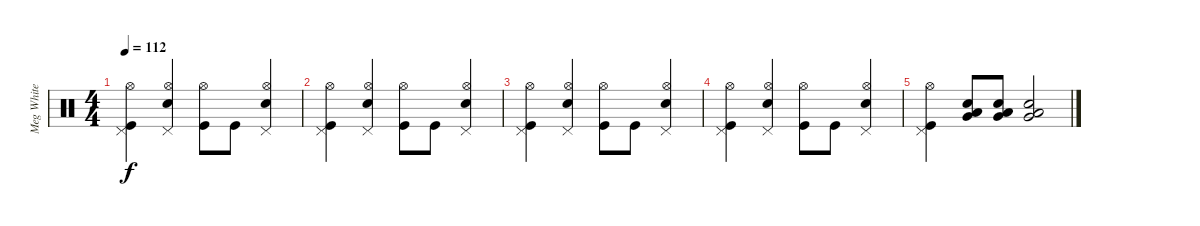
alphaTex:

\track ("Meg White" "Meg White") {instrument percussion}
\staff {score}
\articulation defaults
\ts (4 4)
\tempo 112
\clef neutral
\ks c
("Kick (hit)" "Pedal Hi-Hat (hit)" "Hi-Hat (open)").4{dy f} ("Snare (hit) 2" "Pedal Hi-Hat (hit)" "Hi-Hat (open)").4 ("Kick (hit)" "Hi-Hat (open)").8 "Kick (hit)".8 ("Snare (hit) 2" "Pedal Hi-Hat (hit)" "Hi-Hat (open)").4 |
("Kick (hit)" "Pedal Hi-Hat (hit)" "Hi-Hat (open)").4 ("Snare (hit) 2" "Pedal Hi-Hat (hit)" "Hi-Hat (open)").4 ("Kick (hit)" "Hi-Hat (open)").8 "Kick (hit)".8 ("Snare (hit) 2" "Pedal Hi-Hat (hit)" "Hi-Hat (open)").4 |
("Kick (hit)" "Pedal Hi-Hat (hit)" "Hi-Hat (open)").4 ("Snare (hit) 2" "Pedal Hi-Hat (hit)" "Hi-Hat (open)").4 ("Kick (hit)" "Hi-Hat (open)").8 "Kick (hit)".8 ("Snare (hit) 2" "Pedal Hi-Hat (hit)" "Hi-Hat (open)").4 |
("Kick (hit)" "Pedal Hi-Hat (hit)" "Hi-Hat (open)").4 ("Snare (hit) 2" "Pedal Hi-Hat (hit)" "Hi-Hat (open)").4 ("Kick (hit)" "Hi-Hat (open)").8 "Kick (hit)".8 ("Snare (hit) 2" "Pedal Hi-Hat (hit)" "Hi-Hat (open)").4 |
("Kick (hit)" "Pedal Hi-Hat (hit)" "Hi-Hat (open)").4 ("Snare (hit) 2" "Low Floor Tom (hit)" "Very Low Tom (hit)").8 ("Snare (hit) 2" "Low Floor Tom (hit)" "Very Low Tom (hit)").8 ("Snare (hit) 2" "Low Floor Tom (hit)" "Very Low Tom (hit)").2
